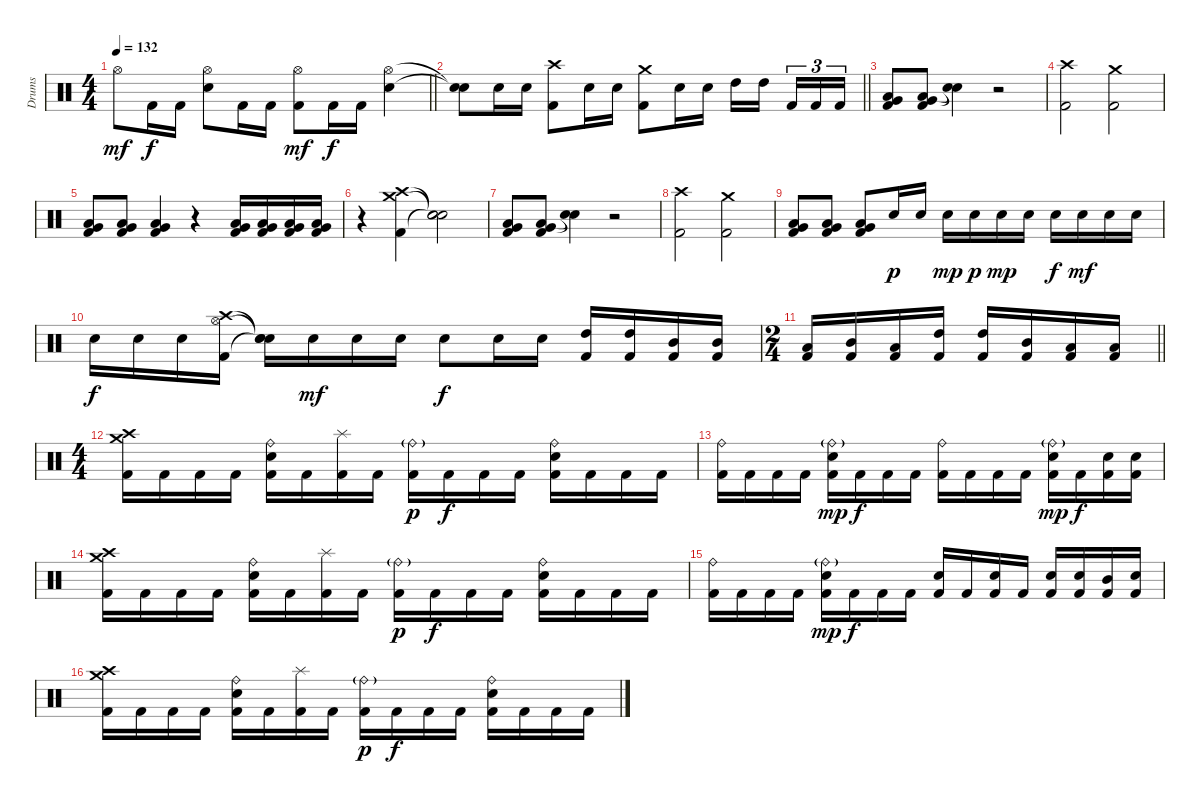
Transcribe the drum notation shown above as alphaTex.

\track ("Drums" "Drums") {instrument percussion}
\staff {score}
\articulation defaults
\ts (4 4)
\tempo 132
\clef neutral
\barLineRight lightlight
\ks c "Hi-Hat (open)".8{dy mf} "Kick (hit) 2".16{dy f} "Kick (hit) 2".16
("Hi-Hat (open)" "Electric Snare (hit)").8 "Kick (hit) 2".16 "Kick (hit) 2".16 ("Hi-Hat (open)" "Kick (hit) 2").8{dy mf} "Kick (hit) 2".16{dy f} "Kick (hit) 2".16 ("Hi-Hat (open)" "Electric Snare (hit)").4 |
\barLineRight lightlight
("Snare (hit)"{t} "Snare (hit)"{t}).8 "Electric Snare (hit)".16 "Electric Snare (hit)".16 ("Crash high (hit)" "Kick (hit) 2").8 "Electric Snare (hit)".16 "Electric Snare (hit)".16 ("Crash medium (hit)" "Kick (hit) 2").8 "Electric Snare (hit)".16 "Electric Snare (hit)".16 "High Tom (hit)".16 "High Tom (hit)".16 "Kick (hit) 2".16{tu (3 2)} "Kick (hit) 2".16{tu (3 2)} "Kick (hit) 2".16{tu (3 2)} |
("Low Tom (hit)" "Very Low Tom (hit)" "Kick (hit) 2").8 ("Low Tom (hit)" "Very Low Tom (hit)" "Kick (hit) 2").8 ("Snare (hit)"{t} "Snare (hit)"{t}).4 r.2 |
("Crash high (hit)" "Kick (hit) 2").2 ("Crash medium (hit)" "Kick (hit) 2").2 |
("Low Tom (hit)" "Very Low Tom (hit)" "Kick (hit) 2").8 ("Low Tom (hit)" "Very Low Tom (hit)" "Kick (hit) 2").8 ("Low Tom (hit)" "Very Low Tom (hit)" "Kick (hit) 2").4 r.4 ("Low Tom (hit)" "Very Low Tom (hit)" "Kick (hit) 2").16 ("Low Tom (hit)" "Very Low Tom (hit)" "Kick (hit) 2").16 ("Low Tom (hit)" "Very Low Tom (hit)" "Kick (hit) 2").16 ("Low Tom (hit)" "Very Low Tom (hit)" "Kick (hit) 2").16 |
r.4 ("Crash high (hit)" "Crash medium (hit)" "Kick (hit) 2").4 ("Snare (hit)"{t} "Snare (hit)"{t} "Snare (hit)"{t}).2 |
("Low Tom (hit)" "Very Low Tom (hit)" "Kick (hit) 2").8 ("Low Tom (hit)" "Very Low Tom (hit)" "Kick (hit) 2").8 ("Snare (hit)"{t} "Snare (hit)"{t}).4 r.2 |
("Crash high (hit)" "Kick (hit) 2").2 ("Crash medium (hit)" "Kick (hit) 2").2 |
("Low Tom (hit)" "Very Low Tom (hit)" "Kick (hit) 2").8 ("Low Tom (hit)" "Very Low Tom (hit)" "Kick (hit) 2").8 ("Low Tom (hit)" "Very Low Tom (hit)" "Kick (hit) 2").8 "Electric Snare (hit)".16{dy p} "Electric Snare (hit)".16 "Electric Snare (hit)".16{dy mp} "Electric Snare (hit)".16{dy p} "Electric Snare (hit)".16{dy mp} "Electric Snare (hit)".16 "Electric Snare (hit)".16{dy f} "Electric Snare (hit)".16{dy mf} "Electric Snare (hit)".16 "Electric Snare (hit)".16 |
"Electric Snare (hit)".16{dy f} "Electric Snare (hit)".16 "Electric Snare (hit)".16 ("Crash high (hit)" "Hi-Hat (open)" "Kick (hit) 2").16 ("Snare (hit)"{t} "Snare (hit)"{t} "Snare (hit)"{t}).16 "Electric Snare (hit)".16{dy mf} "Electric Snare (hit)".16 "Electric Snare (hit)".16 "Electric Snare (hit)".8{dy f} "Electric Snare (hit)".16 "Electric Snare (hit)".16 ("High Tom (hit)" "Kick (hit) 2").16 ("High Tom (hit)" "Kick (hit) 2").16 ("Mid Tom (hit)" "Kick (hit) 2").16 ("Mid Tom (hit)" "Kick (hit) 2").16 |
\ts (2 4)
\barLineRight lightlight
("Low Tom (hit)" "Kick (hit) 2").16 ("Mid Tom (hit)" "Kick (hit) 2").16 ("Low Tom (hit)" "Kick (hit) 2").16 ("High Tom (hit)" "Kick (hit) 2").16 ("High Tom (hit)" "Kick (hit) 2").16 ("Mid Tom (hit)" "Kick (hit) 2").16 ("Low Tom (hit)" "Kick (hit) 2").16 ("Low Tom (hit)" "Kick (hit) 2").16 |
\ts (4 4)
("Crash high (hit)" "Crash medium (hit)" "Kick (hit) 2").16 "Kick (hit) 2".16 "Kick (hit) 2".16 "Kick (hit) 2".16 ("Ride (bell)" "Electric Snare (hit)" "Kick (hit) 2").16 "Kick (hit) 2".16 ("Splash (hit)" "Kick (hit) 2").16 "Kick (hit) 2".16 ("Ride (bell)"{g} "Kick (hit) 2").16{dy p} "Kick (hit) 2".16{dy f} "Kick (hit) 2".16 "Kick (hit) 2".16 ("Ride (bell)" "Electric Snare (hit)" "Kick (hit) 2").16 "Kick (hit) 2".16 "Kick (hit) 2".16 "Kick (hit) 2".16 |
("Ride (bell)" "Kick (hit) 2").16 "Kick (hit) 2".16 "Kick (hit) 2".16 "Kick (hit) 2".16 ("Ride (bell)"{g} "Electric Snare (hit)" "Kick (hit) 2").16{dy mp} "Kick (hit) 2".16{dy f} "Kick (hit) 2".16 "Kick (hit) 2".16 ("Ride (bell)" "Kick (hit) 2").16 "Kick (hit) 2".16 "Kick (hit) 2".16 "Kick (hit) 2".16 ("Ride (bell)"{g} "Electric Snare (hit)" "Kick (hit) 2").16{dy mp} "Kick (hit) 2".16{dy f} ("Electric Snare (hit)" "Kick (hit) 2").16 ("Electric Snare (hit)" "Kick (hit) 2").16 |
("Crash high (hit)" "Crash medium (hit)" "Kick (hit) 2").16 "Kick (hit) 2".16 "Kick (hit) 2".16 "Kick (hit) 2".16 ("Ride (bell)" "Electric Snare (hit)" "Kick (hit) 2").16 "Kick (hit) 2".16 ("Splash (hit)" "Kick (hit) 2").16 "Kick (hit) 2".16 ("Ride (bell)"{g} "Kick (hit) 2").16{dy p} "Kick (hit) 2".16{dy f} "Kick (hit) 2".16 "Kick (hit) 2".16 ("Ride (bell)" "Electric Snare (hit)" "Kick (hit) 2").16 "Kick (hit) 2".16 "Kick (hit) 2".16 "Kick (hit) 2".16 |
("Ride (bell)" "Kick (hit) 2").16 "Kick (hit) 2".16 "Kick (hit) 2".16 "Kick (hit) 2".16 ("Ride (bell)"{g} "Electric Snare (hit)" "Kick (hit) 2").16{dy mp} "Kick (hit) 2".16{dy f} "Kick (hit) 2".16 "Kick (hit) 2".16 ("Electric Snare (hit)" "Kick (hit) 2").16 "Kick (hit) 2".16 ("Electric Snare (hit)" "Kick (hit) 2").16 "Kick (hit) 2".16 ("Electric Snare (hit)" "Kick (hit) 2").16 ("Electric Snare (hit)" "Kick (hit) 2").16 ("Mid Tom (hit)" "Kick (hit) 2").16 ("Electric Snare (hit)" "Kick (hit) 2").16 |
("Crash high (hit)" "Crash medium (hit)" "Kick (hit) 2").16 "Kick (hit) 2".16 "Kick (hit) 2".16 "Kick (hit) 2".16 ("Ride (bell)" "Electric Snare (hit)" "Kick (hit) 2").16 "Kick (hit) 2".16 ("Splash (hit)" "Kick (hit) 2").16 "Kick (hit) 2".16 ("Ride (bell)"{g} "Kick (hit) 2").16{dy p} "Kick (hit) 2".16{dy f} "Kick (hit) 2".16 "Kick (hit) 2".16 ("Ride (bell)" "Electric Snare (hit)" "Kick (hit) 2").16 "Kick (hit) 2".16 "Kick (hit) 2".16 "Kick (hit) 2".16
